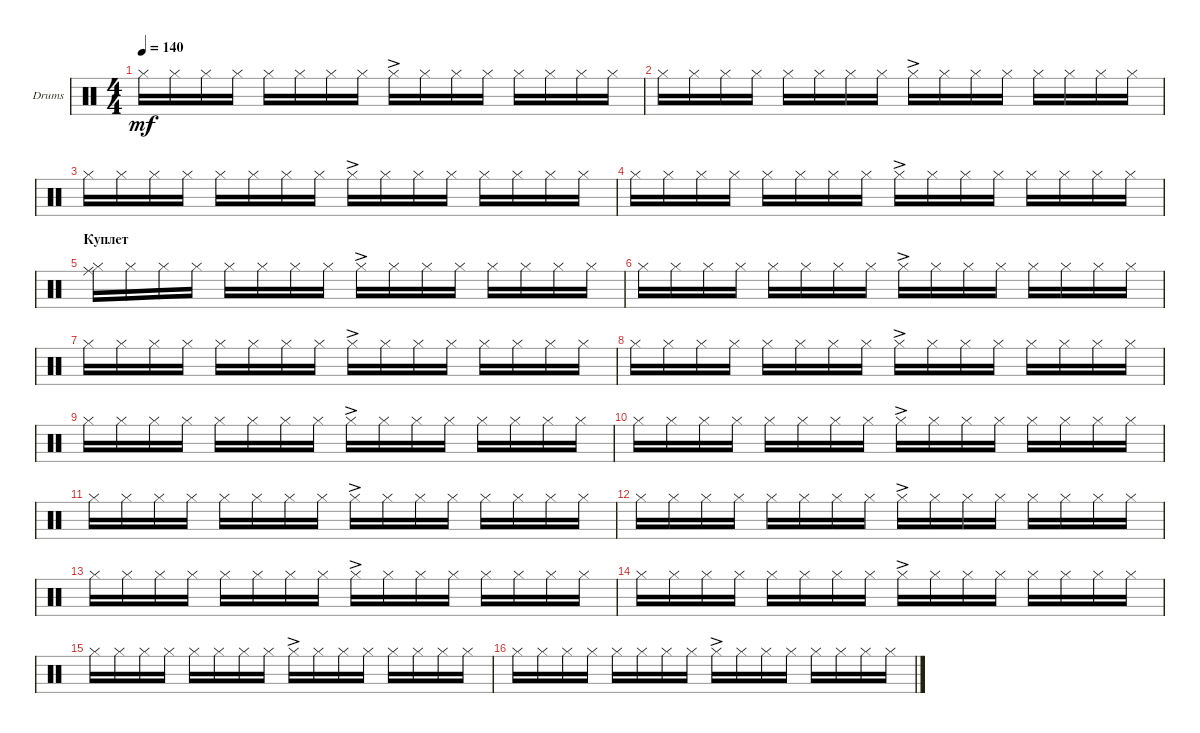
\defaultSystemsLayout 4
\bracketExtendMode groupsimilarinstruments
\firstSystemTrackNameOrientation horizontal
\otherSystemsTrackNameOrientation horizontal
\track ("Ударные" "Drums") {instrument percussion}
\staff {score}
\articulation defaults
\ts (4 4)
\tempo 140
\clef neutral
\scale
0.333333
\ks c "Hi-Hat (closed)".16{dy mf} "Hi-Hat (closed)".16 "Hi-Hat (closed)".16 "Hi-Hat (closed)".16 "Hi-Hat (closed)".16 "Hi-Hat (closed)".16 "Hi-Hat (closed)".16 "Hi-Hat (closed)".16 "Hi-Hat (closed)"{ac}.16 "Hi-Hat (closed)".16 "Hi-Hat (closed)".16 "Hi-Hat (closed)".16 "Hi-Hat (closed)".16 "Hi-Hat (closed)".16 "Hi-Hat (closed)".16 "Hi-Hat (closed)".16
|
\scale
0.333333 "Hi-Hat (closed)".16 "Hi-Hat (closed)".16 "Hi-Hat (closed)".16 "Hi-Hat (closed)".16 "Hi-Hat (closed)".16 "Hi-Hat (closed)".16 "Hi-Hat (closed)".16 "Hi-Hat (closed)".16 "Hi-Hat (closed)"{ac}.16 "Hi-Hat (closed)".16 "Hi-Hat (closed)".16 "Hi-Hat (closed)".16 "Hi-Hat (closed)".16 "Hi-Hat (closed)".16 "Hi-Hat (closed)".16 "Hi-Hat (closed)".16 |
\scale
0.333333 "Hi-Hat (closed)".16 "Hi-Hat (closed)".16 "Hi-Hat (closed)".16 "Hi-Hat (closed)".16 "Hi-Hat (closed)".16 "Hi-Hat (closed)".16 "Hi-Hat (closed)".16 "Hi-Hat (closed)".16 "Hi-Hat (closed)"{ac}.16 "Hi-Hat (closed)".16 "Hi-Hat (closed)".16 "Hi-Hat (closed)".16 "Hi-Hat (closed)".16 "Hi-Hat (closed)".16 "Hi-Hat (closed)".16 "Hi-Hat (closed)".16 |
\scale
0.333333 "Hi-Hat (closed)".16 "Hi-Hat (closed)".16 "Hi-Hat (closed)".16 "Hi-Hat (closed)".16 "Hi-Hat (closed)".16 "Hi-Hat (closed)".16 "Hi-Hat (closed)".16 "Hi-Hat (closed)".16 "Hi-Hat (closed)"{ac}.16 "Hi-Hat (closed)".16 "Hi-Hat (closed)".16 "Hi-Hat (closed)".16 "Hi-Hat (closed)".16 "Hi-Hat (closed)".16 "Hi-Hat (closed)".16 "Hi-Hat (closed)".16 |
\section ("" "Куплет")
\scale
0.333333 ("Hi-Hat (closed)" "Ride (middle)").16 "Hi-Hat (closed)".16 "Hi-Hat (closed)".16 "Hi-Hat (closed)".16 "Hi-Hat (closed)".16 "Hi-Hat (closed)".16 "Hi-Hat (closed)".16 "Hi-Hat (closed)".16 "Hi-Hat (closed)"{ac}.16 "Hi-Hat (closed)".16 "Hi-Hat (closed)".16 "Hi-Hat (closed)".16 "Hi-Hat (closed)".16 "Hi-Hat (closed)".16 "Hi-Hat (closed)".16 "Hi-Hat (closed)".16 |
\scale
0.333333 "Hi-Hat (closed)".16 "Hi-Hat (closed)".16 "Hi-Hat (closed)".16 "Hi-Hat (closed)".16 "Hi-Hat (closed)".16 "Hi-Hat (closed)".16 "Hi-Hat (closed)".16 "Hi-Hat (closed)".16 "Hi-Hat (closed)"{ac}.16 "Hi-Hat (closed)".16 "Hi-Hat (closed)".16 "Hi-Hat (closed)".16 "Hi-Hat (closed)".16 "Hi-Hat (closed)".16 "Hi-Hat (closed)".16 "Hi-Hat (closed)".16 |
\scale
0.333333 "Hi-Hat (closed)".16 "Hi-Hat (closed)".16 "Hi-Hat (closed)".16 "Hi-Hat (closed)".16 "Hi-Hat (closed)".16 "Hi-Hat (closed)".16 "Hi-Hat (closed)".16 "Hi-Hat (closed)".16 "Hi-Hat (closed)"{ac}.16 "Hi-Hat (closed)".16 "Hi-Hat (closed)".16 "Hi-Hat (closed)".16 "Hi-Hat (closed)".16 "Hi-Hat (closed)".16 "Hi-Hat (closed)".16 "Hi-Hat (closed)".16 |
\scale
0.333333 "Hi-Hat (closed)".16 "Hi-Hat (closed)".16 "Hi-Hat (closed)".16 "Hi-Hat (closed)".16 "Hi-Hat (closed)".16 "Hi-Hat (closed)".16 "Hi-Hat (closed)".16 "Hi-Hat (closed)".16 "Hi-Hat (closed)"{ac}.16 "Hi-Hat (closed)".16 "Hi-Hat (closed)".16 "Hi-Hat (closed)".16 "Hi-Hat (closed)".16 "Hi-Hat (closed)".16 "Hi-Hat (closed)".16 "Hi-Hat (closed)".16 |
\scale
0.333333 "Hi-Hat (closed)".16 "Hi-Hat (closed)".16 "Hi-Hat (closed)".16 "Hi-Hat (closed)".16 "Hi-Hat (closed)".16 "Hi-Hat (closed)".16 "Hi-Hat (closed)".16 "Hi-Hat (closed)".16 "Hi-Hat (closed)"{ac}.16 "Hi-Hat (closed)".16 "Hi-Hat (closed)".16 "Hi-Hat (closed)".16 "Hi-Hat (closed)".16 "Hi-Hat (closed)".16 "Hi-Hat (closed)".16 "Hi-Hat (closed)".16 |
\scale
0.333333 "Hi-Hat (closed)".16 "Hi-Hat (closed)".16 "Hi-Hat (closed)".16 "Hi-Hat (closed)".16 "Hi-Hat (closed)".16 "Hi-Hat (closed)".16 "Hi-Hat (closed)".16 "Hi-Hat (closed)".16 "Hi-Hat (closed)"{ac}.16 "Hi-Hat (closed)".16 "Hi-Hat (closed)".16 "Hi-Hat (closed)".16 "Hi-Hat (closed)".16 "Hi-Hat (closed)".16 "Hi-Hat (closed)".16 "Hi-Hat (closed)".16 |
\scale
0.333333 "Hi-Hat (closed)".16 "Hi-Hat (closed)".16 "Hi-Hat (closed)".16 "Hi-Hat (closed)".16 "Hi-Hat (closed)".16 "Hi-Hat (closed)".16 "Hi-Hat (closed)".16 "Hi-Hat (closed)".16 "Hi-Hat (closed)"{ac}.16 "Hi-Hat (closed)".16 "Hi-Hat (closed)".16 "Hi-Hat (closed)".16 "Hi-Hat (closed)".16 "Hi-Hat (closed)".16 "Hi-Hat (closed)".16 "Hi-Hat (closed)".16 |
\scale
0.333333 "Hi-Hat (closed)".16 "Hi-Hat (closed)".16 "Hi-Hat (closed)".16 "Hi-Hat (closed)".16 "Hi-Hat (closed)".16 "Hi-Hat (closed)".16 "Hi-Hat (closed)".16 "Hi-Hat (closed)".16 "Hi-Hat (closed)"{ac}.16 "Hi-Hat (closed)".16 "Hi-Hat (closed)".16 "Hi-Hat (closed)".16 "Hi-Hat (closed)".16 "Hi-Hat (closed)".16 "Hi-Hat (closed)".16 "Hi-Hat (closed)".16 |
\scale
0.333333 "Hi-Hat (closed)".16 "Hi-Hat (closed)".16 "Hi-Hat (closed)".16 "Hi-Hat (closed)".16 "Hi-Hat (closed)".16 "Hi-Hat (closed)".16 "Hi-Hat (closed)".16 "Hi-Hat (closed)".16 "Hi-Hat (closed)"{ac}.16 "Hi-Hat (closed)".16 "Hi-Hat (closed)".16 "Hi-Hat (closed)".16 "Hi-Hat (closed)".16 "Hi-Hat (closed)".16 "Hi-Hat (closed)".16 "Hi-Hat (closed)".16 |
\scale
0.333333 "Hi-Hat (closed)".16 "Hi-Hat (closed)".16 "Hi-Hat (closed)".16 "Hi-Hat (closed)".16 "Hi-Hat (closed)".16 "Hi-Hat (closed)".16 "Hi-Hat (closed)".16 "Hi-Hat (closed)".16 "Hi-Hat (closed)"{ac}.16 "Hi-Hat (closed)".16 "Hi-Hat (closed)".16 "Hi-Hat (closed)".16 "Hi-Hat (closed)".16 "Hi-Hat (closed)".16 "Hi-Hat (closed)".16 "Hi-Hat (closed)".16 |
\scale
0.333333 "Hi-Hat (closed)".16 "Hi-Hat (closed)".16 "Hi-Hat (closed)".16 "Hi-Hat (closed)".16 "Hi-Hat (closed)".16 "Hi-Hat (closed)".16 "Hi-Hat (closed)".16 "Hi-Hat (closed)".16 "Hi-Hat (closed)"{ac}.16 "Hi-Hat (closed)".16 "Hi-Hat (closed)".16 "Hi-Hat (closed)".16 "Hi-Hat (closed)".16 "Hi-Hat (closed)".16 "Hi-Hat (closed)".16 "Hi-Hat (closed)".16 |
\scale
0.333333 "Hi-Hat (closed)".16 "Hi-Hat (closed)".16 "Hi-Hat (closed)".16 "Hi-Hat (closed)".16 "Hi-Hat (closed)".16 "Hi-Hat (closed)".16 "Hi-Hat (closed)".16 "Hi-Hat (closed)".16 "Hi-Hat (closed)"{ac}.16 "Hi-Hat (closed)".16 "Hi-Hat (closed)".16 "Hi-Hat (closed)".16 "Hi-Hat (closed)".16 "Hi-Hat (closed)".16 "Hi-Hat (closed)".16 "Hi-Hat (closed)".16
